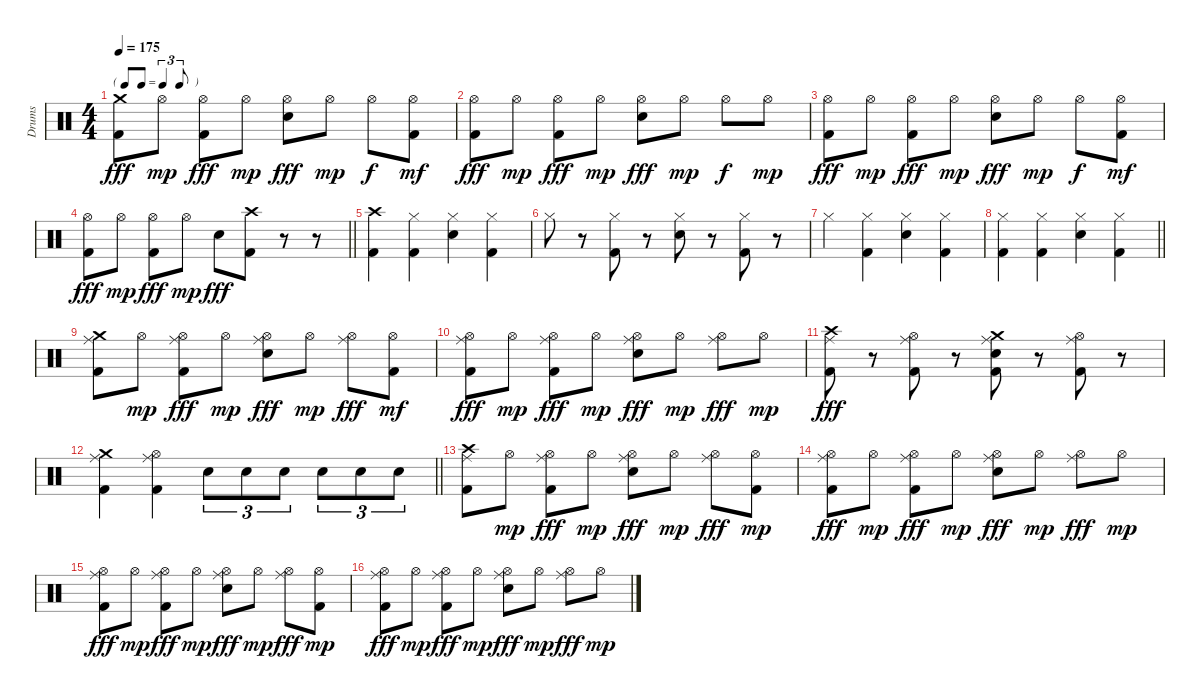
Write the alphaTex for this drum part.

\track ("Drums" "Drums") {instrument percussion}
\staff {score}
\articulation defaults
\ts (4 4)
\tf triplet8th
\tempo 175
\clef neutral
\ks c
("Crash medium (hit)" "Kick (hit) 2").8{dy fff} "Hi-Hat (open)".8{dy mp} ("Hi-Hat (open)" "Kick (hit) 2").8{dy fff} "Hi-Hat (open)".8{dy mp} ("Hi-Hat (open)" "Electric Snare (hit)").8{dy fff} "Hi-Hat (open)".8{dy mp} "Hi-Hat (open)".8{dy f} ("Hi-Hat (open)" "Kick (hit) 2").8{dy mf} |
("Hi-Hat (open)" "Kick (hit) 2").8{dy fff} "Hi-Hat (open)".8{dy mp} ("Hi-Hat (open)" "Kick (hit) 2").8{dy fff} "Hi-Hat (open)".8{dy mp} ("Hi-Hat (open)" "Electric Snare (hit)").8{dy fff} "Hi-Hat (open)".8{dy mp} "Hi-Hat (open)".8{dy f} "Hi-Hat (open)".8{dy mp} |
("Hi-Hat (open)" "Kick (hit) 2").8{dy fff} "Hi-Hat (open)".8{dy mp} ("Hi-Hat (open)" "Kick (hit) 2").8{dy fff} "Hi-Hat (open)".8{dy mp} ("Hi-Hat (open)" "Electric Snare (hit)").8{dy fff} "Hi-Hat (open)".8{dy mp} "Hi-Hat (open)".8{dy f} ("Hi-Hat (open)" "Kick (hit) 2").8{dy mf} |
\barLineRight lightlight
("Hi-Hat (open)" "Kick (hit) 2").8{dy fff} "Hi-Hat (open)".8{dy mp} ("Hi-Hat (open)" "Kick (hit) 2").8{dy fff} "Hi-Hat (open)".8{dy mp} "Electric Snare (hit)".8{dy fff} ("Crash high (hit)" "Kick (hit) 2").8 r.8 r.8 |
("Crash high (hit)" "Kick (hit) 2").4 ("Hi-Hat (closed)" "Kick (hit) 2").4 ("Hi-Hat (closed)" "Electric Snare (hit)").4 ("Hi-Hat (closed)" "Kick (hit) 2").4 |
"Hi-Hat (closed)".8 r.8 ("Hi-Hat (closed)" "Kick (hit) 2").8 r.8 ("Hi-Hat (closed)" "Electric Snare (hit)").8 r.8 ("Hi-Hat (closed)" "Kick (hit) 2").8 r.8 |
"Hi-Hat (closed)".4 ("Hi-Hat (closed)" "Kick (hit) 2").4 ("Hi-Hat (closed)" "Electric Snare (hit)").4 ("Hi-Hat (closed)" "Kick (hit) 2").4 |
\barLineRight lightlight
("Hi-Hat (closed)" "Kick (hit) 2").4 ("Hi-Hat (closed)" "Kick (hit) 2").4 ("Hi-Hat (closed)" "Electric Snare (hit)").4 ("Hi-Hat (closed)" "Kick (hit) 2").4 |
("Crash medium (hit)" "Ride (middle)" "Kick (hit) 2").8 "Hi-Hat (open)".8{dy mp} ("Hi-Hat (open)" "Ride (middle)" "Kick (hit) 2").8{dy fff} "Hi-Hat (open)".8{dy mp} ("Hi-Hat (open)" "Ride (middle)" "Electric Snare (hit)").8{dy fff} "Hi-Hat (open)".8{dy mp} ("Hi-Hat (open)" "Ride (middle)").8{dy fff} ("Hi-Hat (open)" "Kick (hit) 2").8{dy mf} |
("Hi-Hat (open)" "Ride (middle)" "Kick (hit) 2").8{dy fff} "Hi-Hat (open)".8{dy mp} ("Hi-Hat (open)" "Ride (middle)" "Kick (hit) 2").8{dy fff} "Hi-Hat (open)".8{dy mp} ("Hi-Hat (open)" "Ride (middle)" "Electric Snare (hit)").8{dy fff} "Hi-Hat (open)".8{dy mp} ("Hi-Hat (open)" "Ride (middle)").8{dy fff} "Hi-Hat (open)".8{dy mp} |
("Crash high (hit)" "Ride (middle)" "Kick (hit) 2").8{dy fff} r.8 ("Hi-Hat (open)" "Ride (middle)" "Kick (hit) 2").8 r.8 ("Crash medium (hit)" "Ride (middle)" "Electric Snare (hit)" "Kick (hit) 2").8 r.8 ("Hi-Hat (open)" "Ride (middle)" "Kick (hit) 2").8 r.8 |
\barLineRight lightlight
("Crash medium (hit)" "Ride (middle)" "Kick (hit) 2").4 ("Hi-Hat (open)" "Ride (middle)" "Kick (hit) 2").4 "Electric Snare (hit)".8{tu (3 2)} "Electric Snare (hit)".8{tu (3 2)} "Electric Snare (hit)".8{tu (3 2)} "Electric Snare (hit)".8{tu (3 2)} "Electric Snare (hit)".8{tu (3 2)} "Electric Snare (hit)".8{tu (3 2)} |
("Crash high (hit)" "Ride (middle)" "Kick (hit) 2").8 "Hi-Hat (open)".8{dy mp} ("Hi-Hat (open)" "Ride (middle)" "Kick (hit) 2").8{dy fff} "Hi-Hat (open)".8{dy mp} ("Hi-Hat (open)" "Ride (middle)" "Electric Snare (hit)").8{dy fff} "Hi-Hat (open)".8{dy mp} ("Hi-Hat (open)" "Ride (middle)").8{dy fff} ("Hi-Hat (open)" "Kick (hit) 2").8{dy mp} |
("Hi-Hat (open)" "Ride (middle)" "Kick (hit) 2").8{dy fff} "Hi-Hat (open)".8{dy mp} ("Hi-Hat (open)" "Ride (middle)" "Kick (hit) 2").8{dy fff} "Hi-Hat (open)".8{dy mp} ("Hi-Hat (open)" "Ride (middle)" "Electric Snare (hit)").8{dy fff} "Hi-Hat (open)".8{dy mp} ("Hi-Hat (open)" "Ride (middle)").8{dy fff} "Hi-Hat (open)".8{dy mp} |
("Hi-Hat (open)" "Ride (middle)" "Kick (hit) 2").8{dy fff} "Hi-Hat (open)".8{dy mp} ("Hi-Hat (open)" "Ride (middle)" "Kick (hit) 2").8{dy fff} "Hi-Hat (open)".8{dy mp} ("Hi-Hat (open)" "Ride (middle)" "Electric Snare (hit)").8{dy fff} "Hi-Hat (open)".8{dy mp} ("Hi-Hat (open)" "Ride (middle)").8{dy fff} ("Hi-Hat (open)" "Kick (hit) 2").8{dy mp} |
("Hi-Hat (open)" "Ride (middle)" "Kick (hit) 2").8{dy fff} "Hi-Hat (open)".8{dy mp} ("Hi-Hat (open)" "Ride (middle)" "Kick (hit) 2").8{dy fff} "Hi-Hat (open)".8{dy mp} ("Hi-Hat (open)" "Ride (middle)" "Electric Snare (hit)").8{dy fff} "Hi-Hat (open)".8{dy mp} ("Hi-Hat (open)" "Ride (middle)").8{dy fff} "Hi-Hat (open)".8{dy mp}
